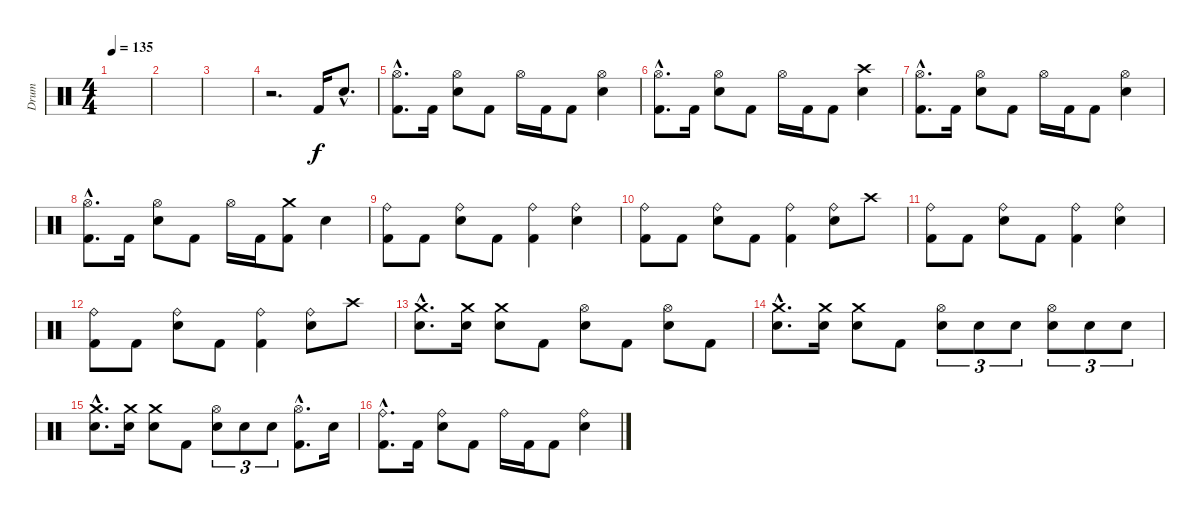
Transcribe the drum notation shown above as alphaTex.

\track ("Drum" "Drum") {instrument percussion}
\staff {score}
\articulation defaults
\ts (4 4)
\tempo 135
\clef neutral
\ks c
|
|
|
r.2{d} "Kick (hit) 2".16 "Electric Snare (hit)"{hac}.8{d} |
("Hi-Hat (open)"{hac} "Kick (hit) 2"{hac}).8{d} "Kick (hit) 2".16 ("Hi-Hat (open)" "Electric Snare (hit)").8 "Kick (hit) 2".8 "Hi-Hat (open)".16 "Kick (hit) 2".16 "Kick (hit) 2".8 ("Hi-Hat (open)" "Electric Snare (hit)").4 |
("Hi-Hat (open)"{hac} "Kick (hit) 2"{hac}).8{d} "Kick (hit) 2".16 ("Hi-Hat (open)" "Electric Snare (hit)").8 "Kick (hit) 2".8 "Hi-Hat (open)".16 "Kick (hit) 2".16 "Kick (hit) 2".8 ("Crash high (hit)" "Electric Snare (hit)").4 |
("Hi-Hat (open)"{hac} "Kick (hit) 2"{hac}).8{d} "Kick (hit) 2".16 ("Hi-Hat (open)" "Electric Snare (hit)").8 "Kick (hit) 2".8 "Hi-Hat (open)".16 "Kick (hit) 2".16 "Kick (hit) 2".8 ("Hi-Hat (open)" "Electric Snare (hit)").4 |
("Hi-Hat (open)"{hac} "Kick (hit) 2"{hac}).8{d} "Kick (hit) 2".16 ("Hi-Hat (open)" "Electric Snare (hit)").8 "Kick (hit) 2".8 "Hi-Hat (open)".16 "Kick (hit) 2".16 ("Crash medium (hit)" "Kick (hit) 2").8 "Electric Snare (hit)".4 |
("Ride (bell)" "Kick (hit) 2").8 "Kick (hit) 2".8 ("Ride (bell)" "Electric Snare (hit)").8 "Kick (hit) 2".8 ("Ride (bell)" "Kick (hit) 2").4 ("Ride (bell)" "Electric Snare (hit)").4 |
("Ride (bell)" "Kick (hit) 2").8 "Kick (hit) 2".8 ("Ride (bell)" "Electric Snare (hit)").8 "Kick (hit) 2".8 ("Ride (bell)" "Kick (hit) 2").4 ("Ride (bell)" "Electric Snare (hit)").8 "Crash high (hit)".8 |
("Ride (bell)" "Kick (hit) 2").8 "Kick (hit) 2".8 ("Ride (bell)" "Electric Snare (hit)").8 "Kick (hit) 2".8 ("Ride (bell)" "Kick (hit) 2").4 ("Ride (bell)" "Electric Snare (hit)").4 |
("Ride (bell)" "Kick (hit) 2").8 "Kick (hit) 2".8 ("Ride (bell)" "Electric Snare (hit)").8 "Kick (hit) 2".8 ("Ride (bell)" "Kick (hit) 2").4 ("Ride (bell)" "Electric Snare (hit)").8 "Crash high (hit)".8 |
("Crash medium (hit)"{hac} "Electric Snare (hit)"{hac}).8{d} ("Crash medium (hit)" "Electric Snare (hit)").16 ("Crash medium (hit)" "Electric Snare (hit)").8 "Kick (hit) 2".8 ("Hi-Hat (open)" "Electric Snare (hit)").8 "Kick (hit) 2".8 ("Hi-Hat (open)" "Electric Snare (hit)").8 "Kick (hit) 2".8 |
("Crash medium (hit)"{hac} "Electric Snare (hit)"{hac}).8{d} ("Crash medium (hit)" "Electric Snare (hit)").16 ("Crash medium (hit)" "Electric Snare (hit)").8 "Kick (hit) 2".8 ("Hi-Hat (open)" "Electric Snare (hit)").8{tu (3 2)} "Electric Snare (hit)".8{tu (3 2)} "Electric Snare (hit)".8{tu (3 2)} ("Hi-Hat (open)" "Electric Snare (hit)").8{tu (3 2)} "Electric Snare (hit)".8{tu (3 2)} "Electric Snare (hit)".8{tu (3 2)} |
("Crash medium (hit)"{hac} "Electric Snare (hit)"{hac}).8{d} ("Crash medium (hit)" "Electric Snare (hit)").16 ("Crash medium (hit)" "Electric Snare (hit)").8 "Kick (hit) 2".8 ("Hi-Hat (open)" "Electric Snare (hit)").8{tu (3 2)} "Electric Snare (hit)".8{tu (3 2)} "Electric Snare (hit)".8{tu (3 2)} ("Hi-Hat (open)"{hac} "Kick (hit) 2"{hac}).8{d} "Electric Snare (hit)".16 |
("Ride (bell)"{hac} "Kick (hit) 2"{hac}).8{d} "Kick (hit) 2".16 ("Ride (bell)" "Electric Snare (hit)").8 "Kick (hit) 2".8 "Ride (bell)".16 "Kick (hit) 2".16 "Kick (hit) 2".8 ("Ride (bell)" "Electric Snare (hit)").4
